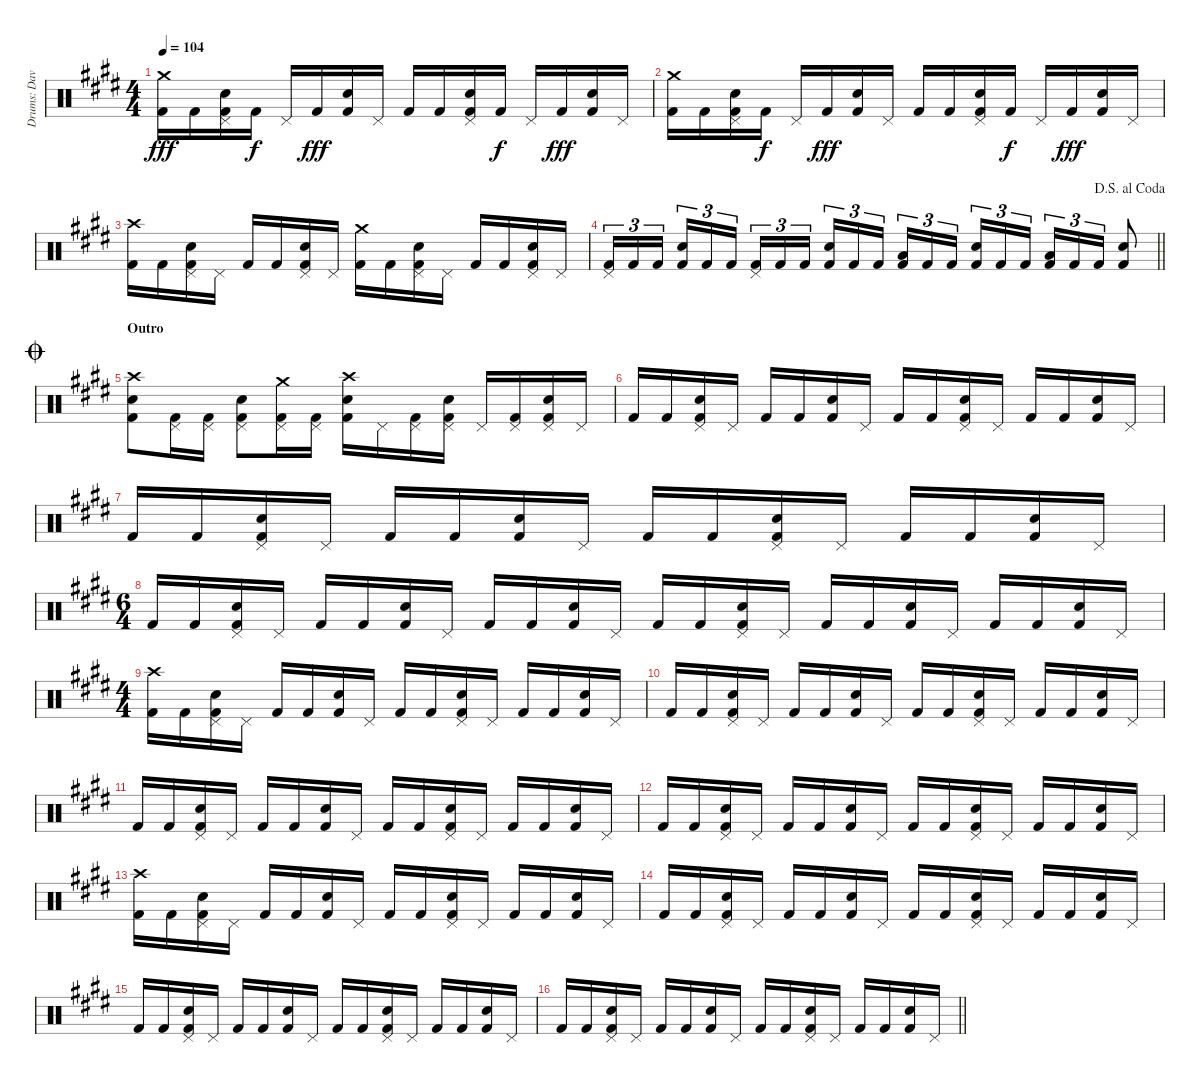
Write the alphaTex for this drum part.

\track ("Drums: Dave" "Drums: Dav") {instrument percussion}
\staff {score}
\articulation defaults
\ts (4 4)
\tempo 104
\clef neutral
\ks e
("Crash medium (hit)" "Kick (hit) 2").16{dy fff} "Kick (hit) 2".16 ("Pedal Hi-Hat (hit)" "Snare (hit) 2" "Kick (hit) 2").16 "Kick (hit) 2".16{dy f} "Pedal Hi-Hat (hit)".16 "Kick (hit) 2".16{dy fff} ("Snare (hit) 2" "Kick (hit) 2").16 "Pedal Hi-Hat (hit)".16 "Kick (hit) 2".16 "Kick (hit) 2".16 ("Pedal Hi-Hat (hit)" "Snare (hit) 2" "Kick (hit) 2").16 "Kick (hit) 2".16{dy f} "Pedal Hi-Hat (hit)".16 "Kick (hit) 2".16{dy fff} ("Snare (hit) 2" "Kick (hit) 2").16 "Pedal Hi-Hat (hit)".16 |
("Crash medium (hit)" "Kick (hit) 2").16 "Kick (hit) 2".16 ("Pedal Hi-Hat (hit)" "Snare (hit) 2" "Kick (hit) 2").16 "Kick (hit) 2".16{dy f} "Pedal Hi-Hat (hit)".16 "Kick (hit) 2".16{dy fff} ("Snare (hit) 2" "Kick (hit) 2").16 "Pedal Hi-Hat (hit)".16 "Kick (hit) 2".16 "Kick (hit) 2".16 ("Pedal Hi-Hat (hit)" "Snare (hit) 2" "Kick (hit) 2").16 "Kick (hit) 2".16{dy f} "Pedal Hi-Hat (hit)".16 "Kick (hit) 2".16{dy fff} ("Snare (hit) 2" "Kick (hit) 2").16 "Pedal Hi-Hat (hit)".16 |
("Crash high (hit)" "Kick (hit) 2").16 "Kick (hit) 2".16 ("Pedal Hi-Hat (hit)" "Snare (hit) 2" "Kick (hit) 2").16 "Pedal Hi-Hat (hit)".16 "Kick (hit) 2".16 "Kick (hit) 2".16 ("Pedal Hi-Hat (hit)" "Snare (hit) 2" "Kick (hit) 2").16 "Pedal Hi-Hat (hit)".16 ("Crash medium (hit)" "Kick (hit) 2").16 "Kick (hit) 2".16 ("Pedal Hi-Hat (hit)" "Snare (hit) 2" "Kick (hit) 2").16 "Pedal Hi-Hat (hit)".16 "Kick (hit) 2".16 "Kick (hit) 2".16 ("Pedal Hi-Hat (hit)" "Snare (hit) 2" "Kick (hit) 2").16 "Pedal Hi-Hat (hit)".16 |
\jump dalsegnoalcoda
\barLineRight lightlight
("Pedal Hi-Hat (hit)" "Kick (hit) 2").16{tu (3 2)} "Kick (hit) 2".16{tu (3 2)} "Kick (hit) 2".16{tu (3 2) beam splitsecondary} ("Snare (hit) 2" "Kick (hit) 2").16{tu (3 2)} "Kick (hit) 2".16{tu (3 2)} "Kick (hit) 2".16{tu (3 2)} ("Pedal Hi-Hat (hit)" "Kick (hit) 2").16{tu (3 2)} "Kick (hit) 2".16{tu (3 2)} "Kick (hit) 2".16{tu (3 2) beam splitsecondary} ("Snare (hit) 2" "Kick (hit) 2").16{tu (3 2)} "Kick (hit) 2".16{tu (3 2)} "Kick (hit) 2".16{tu (3 2)} ("Low Tom (hit)" "Kick (hit) 2").16{tu (3 2)} "Kick (hit) 2".16{tu (3 2)} "Kick (hit) 2".16{tu (3 2) beam splitsecondary} ("Snare (hit) 2" "Kick (hit) 2").16{tu (3 2)} "Kick (hit) 2".16{tu (3 2)} "Kick (hit) 2".16{tu (3 2)} ("Low Tom (hit)" "Kick (hit) 2").16{tu (3 2)} "Kick (hit) 2".16{tu (3 2)} "Kick (hit) 2".16{tu (3 2)} ("Snare (hit) 2" "Kick (hit) 2").8 |
\section ("" "Outro")
\jump coda
("Crash high (hit)" "Snare (hit) 2" "Kick (hit) 2").8 ("Pedal Hi-Hat (hit)" "Kick (hit) 2").16 ("Pedal Hi-Hat (hit)" "Kick (hit) 2").16 ("Pedal Hi-Hat (hit)" "Snare (hit) 2" "Kick (hit) 2").8 ("Crash medium (hit)" "Pedal Hi-Hat (hit)" "Kick (hit) 2").16 ("Pedal Hi-Hat (hit)" "Kick (hit) 2").16 ("Crash high (hit)" "Snare (hit) 2" "Kick (hit) 2").16 "Pedal Hi-Hat (hit)".16 ("Pedal Hi-Hat (hit)" "Kick (hit) 2").16 ("Pedal Hi-Hat (hit)" "Snare (hit) 2" "Kick (hit) 2").16 "Pedal Hi-Hat (hit)".16 ("Pedal Hi-Hat (hit)" "Kick (hit) 2").16 ("Pedal Hi-Hat (hit)" "Snare (hit) 2" "Kick (hit) 2").16 "Pedal Hi-Hat (hit)".16 |
"Kick (hit) 2".16 "Kick (hit) 2".16 ("Pedal Hi-Hat (hit)" "Snare (hit) 2" "Kick (hit) 2").16 "Pedal Hi-Hat (hit)".16 "Kick (hit) 2".16 "Kick (hit) 2".16 ("Snare (hit) 2" "Kick (hit) 2").16 "Pedal Hi-Hat (hit)".16 "Kick (hit) 2".16 "Kick (hit) 2".16 ("Pedal Hi-Hat (hit)" "Snare (hit) 2" "Kick (hit) 2").16 "Pedal Hi-Hat (hit)".16 "Kick (hit) 2".16 "Kick (hit) 2".16 ("Snare (hit) 2" "Kick (hit) 2").16 "Pedal Hi-Hat (hit)".16 |
"Kick (hit) 2".16 "Kick (hit) 2".16 ("Pedal Hi-Hat (hit)" "Snare (hit) 2" "Kick (hit) 2").16 "Pedal Hi-Hat (hit)".16 "Kick (hit) 2".16 "Kick (hit) 2".16 ("Snare (hit) 2" "Kick (hit) 2").16 "Pedal Hi-Hat (hit)".16 "Kick (hit) 2".16 "Kick (hit) 2".16 ("Pedal Hi-Hat (hit)" "Snare (hit) 2" "Kick (hit) 2").16 "Pedal Hi-Hat (hit)".16 "Kick (hit) 2".16 "Kick (hit) 2".16 ("Snare (hit) 2" "Kick (hit) 2").16 "Pedal Hi-Hat (hit)".16 |
\ts (6 4)
"Kick (hit) 2".16 "Kick (hit) 2".16 ("Pedal Hi-Hat (hit)" "Snare (hit) 2" "Kick (hit) 2").16 "Pedal Hi-Hat (hit)".16 "Kick (hit) 2".16 "Kick (hit) 2".16 ("Snare (hit) 2" "Kick (hit) 2").16 "Pedal Hi-Hat (hit)".16 "Kick (hit) 2".16 "Kick (hit) 2".16 ("Snare (hit) 2" "Kick (hit) 2").16 "Pedal Hi-Hat (hit)".16 "Kick (hit) 2".16 "Kick (hit) 2".16 ("Pedal Hi-Hat (hit)" "Snare (hit) 2" "Kick (hit) 2").16 "Pedal Hi-Hat (hit)".16 "Kick (hit) 2".16 "Kick (hit) 2".16 ("Snare (hit) 2" "Kick (hit) 2").16 "Pedal Hi-Hat (hit)".16 "Kick (hit) 2".16 "Kick (hit) 2".16 ("Snare (hit) 2" "Kick (hit) 2").16 "Pedal Hi-Hat (hit)".16 |
\ts (4 4)
("Crash high (hit)" "Kick (hit) 2").16 "Kick (hit) 2".16 ("Pedal Hi-Hat (hit)" "Snare (hit) 2" "Kick (hit) 2").16 "Pedal Hi-Hat (hit)".16 "Kick (hit) 2".16 "Kick (hit) 2".16 ("Snare (hit) 2" "Kick (hit) 2").16 "Pedal Hi-Hat (hit)".16 "Kick (hit) 2".16 "Kick (hit) 2".16 ("Pedal Hi-Hat (hit)" "Snare (hit) 2" "Kick (hit) 2").16 "Pedal Hi-Hat (hit)".16 "Kick (hit) 2".16 "Kick (hit) 2".16 ("Snare (hit) 2" "Kick (hit) 2").16 "Pedal Hi-Hat (hit)".16 |
"Kick (hit) 2".16 "Kick (hit) 2".16 ("Pedal Hi-Hat (hit)" "Snare (hit) 2" "Kick (hit) 2").16 "Pedal Hi-Hat (hit)".16 "Kick (hit) 2".16 "Kick (hit) 2".16 ("Snare (hit) 2" "Kick (hit) 2").16 "Pedal Hi-Hat (hit)".16 "Kick (hit) 2".16 "Kick (hit) 2".16 ("Pedal Hi-Hat (hit)" "Snare (hit) 2" "Kick (hit) 2").16 "Pedal Hi-Hat (hit)".16 "Kick (hit) 2".16 "Kick (hit) 2".16 ("Snare (hit) 2" "Kick (hit) 2").16 "Pedal Hi-Hat (hit)".16 |
"Kick (hit) 2".16 "Kick (hit) 2".16 ("Pedal Hi-Hat (hit)" "Snare (hit) 2" "Kick (hit) 2").16 "Pedal Hi-Hat (hit)".16 "Kick (hit) 2".16 "Kick (hit) 2".16 ("Snare (hit) 2" "Kick (hit) 2").16 "Pedal Hi-Hat (hit)".16 "Kick (hit) 2".16 "Kick (hit) 2".16 ("Pedal Hi-Hat (hit)" "Snare (hit) 2" "Kick (hit) 2").16 "Pedal Hi-Hat (hit)".16 "Kick (hit) 2".16 "Kick (hit) 2".16 ("Snare (hit) 2" "Kick (hit) 2").16 "Pedal Hi-Hat (hit)".16 |
"Kick (hit) 2".16 "Kick (hit) 2".16 ("Pedal Hi-Hat (hit)" "Snare (hit) 2" "Kick (hit) 2").16 "Pedal Hi-Hat (hit)".16 "Kick (hit) 2".16 "Kick (hit) 2".16 ("Snare (hit) 2" "Kick (hit) 2").16 "Pedal Hi-Hat (hit)".16 "Kick (hit) 2".16 "Kick (hit) 2".16 ("Pedal Hi-Hat (hit)" "Snare (hit) 2" "Kick (hit) 2").16 "Pedal Hi-Hat (hit)".16 "Kick (hit) 2".16 "Kick (hit) 2".16 ("Snare (hit) 2" "Kick (hit) 2").16 "Pedal Hi-Hat (hit)".16 |
("Crash high (hit)" "Kick (hit) 2").16 "Kick (hit) 2".16 ("Pedal Hi-Hat (hit)" "Snare (hit) 2" "Kick (hit) 2").16 "Pedal Hi-Hat (hit)".16 "Kick (hit) 2".16 "Kick (hit) 2".16 ("Snare (hit) 2" "Kick (hit) 2").16 "Pedal Hi-Hat (hit)".16 "Kick (hit) 2".16 "Kick (hit) 2".16 ("Pedal Hi-Hat (hit)" "Snare (hit) 2" "Kick (hit) 2").16 "Pedal Hi-Hat (hit)".16 "Kick (hit) 2".16 "Kick (hit) 2".16 ("Snare (hit) 2" "Kick (hit) 2").16 "Pedal Hi-Hat (hit)".16 |
"Kick (hit) 2".16 "Kick (hit) 2".16 ("Pedal Hi-Hat (hit)" "Snare (hit) 2" "Kick (hit) 2").16 "Pedal Hi-Hat (hit)".16 "Kick (hit) 2".16 "Kick (hit) 2".16 ("Snare (hit) 2" "Kick (hit) 2").16 "Pedal Hi-Hat (hit)".16 "Kick (hit) 2".16 "Kick (hit) 2".16 ("Pedal Hi-Hat (hit)" "Snare (hit) 2" "Kick (hit) 2").16 "Pedal Hi-Hat (hit)".16 "Kick (hit) 2".16 "Kick (hit) 2".16 ("Snare (hit) 2" "Kick (hit) 2").16 "Pedal Hi-Hat (hit)".16 |
"Kick (hit) 2".16 "Kick (hit) 2".16 ("Pedal Hi-Hat (hit)" "Snare (hit) 2" "Kick (hit) 2").16 "Pedal Hi-Hat (hit)".16 "Kick (hit) 2".16 "Kick (hit) 2".16 ("Snare (hit) 2" "Kick (hit) 2").16 "Pedal Hi-Hat (hit)".16 "Kick (hit) 2".16 "Kick (hit) 2".16 ("Pedal Hi-Hat (hit)" "Snare (hit) 2" "Kick (hit) 2").16 "Pedal Hi-Hat (hit)".16 "Kick (hit) 2".16 "Kick (hit) 2".16 ("Snare (hit) 2" "Kick (hit) 2").16 "Pedal Hi-Hat (hit)".16 |
\barLineRight lightlight "Kick (hit) 2".16 "Kick (hit) 2".16
("Pedal Hi-Hat (hit)" "Snare (hit) 2" "Kick (hit) 2").16 "Pedal Hi-Hat (hit)".16 "Kick (hit) 2".16 "Kick (hit) 2".16 ("Snare (hit) 2" "Kick (hit) 2").16 "Pedal Hi-Hat (hit)".16 "Kick (hit) 2".16 "Kick (hit) 2".16 ("Pedal Hi-Hat (hit)" "Snare (hit) 2" "Kick (hit) 2").16 "Pedal Hi-Hat (hit)".16 "Kick (hit) 2".16 "Kick (hit) 2".16 ("Snare (hit) 2" "Kick (hit) 2").16 "Pedal Hi-Hat (hit)".16
